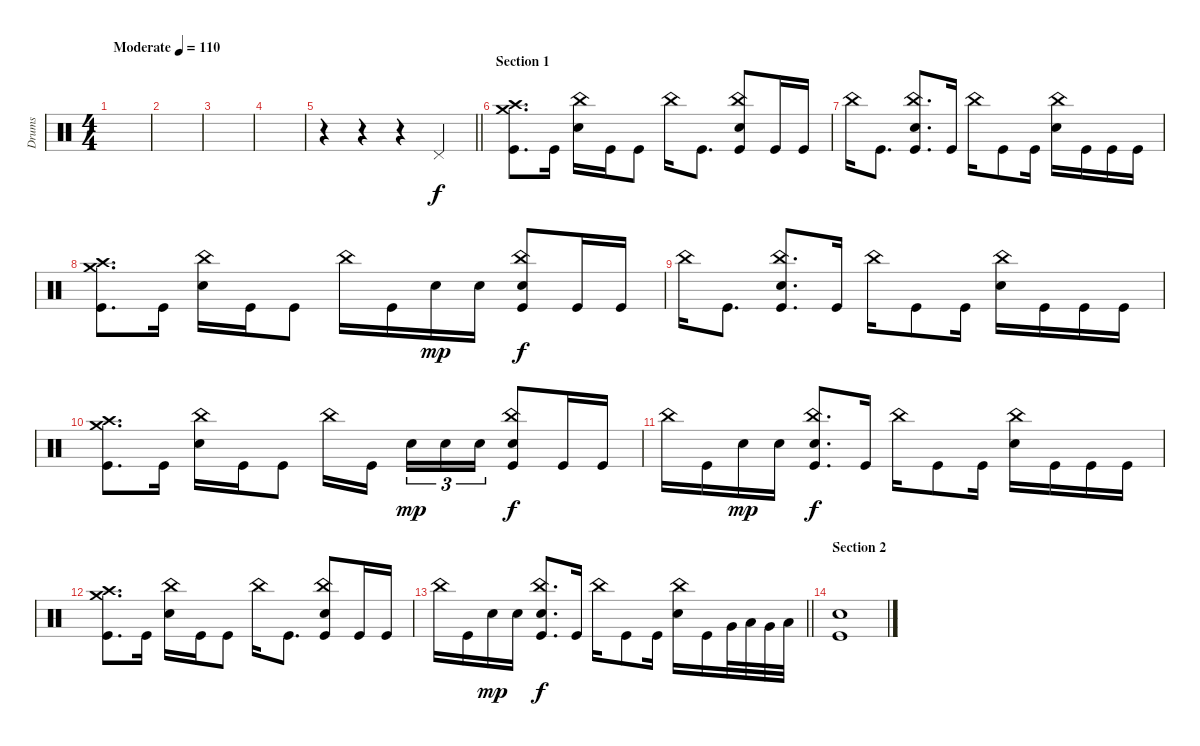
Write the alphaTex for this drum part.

\track ("Drums" "Drums") {instrument percussion}
\staff {score}
\articulation defaults
\ts (4 4)
\tempo (110 "Moderate")
\clef neutral
\ks c
|
|
|
|
\barLineRight lightlight
r.4 r.4 r.4 "Pedal Hi-Hat (hit)".4 |
\section ("" "Section 1")
("Crash high (hit)" "Crash medium (hit)" "Kick (hit)").8{d dy f} "Kick (hit)".16 ("China (hit)" "Electric Snare (hit)").16 "Kick (hit)".16 "Kick (hit)".8 "China (hit)".16 "Kick (hit)".8{d} ("China (hit)" "Electric Snare (hit)" "Kick (hit)").8 "Kick (hit)".16 "Kick (hit)".16 |
"China (hit)".16 "Kick (hit)".8{d} ("China (hit)" "Electric Snare (hit)" "Kick (hit)").8{d} "Kick (hit)".16 "China (hit)".16 "Kick (hit)".8 "Kick (hit)".16 ("China (hit)" "Electric Snare (hit)").16 "Kick (hit)".16 "Kick (hit)".16 "Kick (hit)".16 |
("Crash high (hit)" "Crash medium (hit)" "Kick (hit)").8{d} "Kick (hit)".16 ("China (hit)" "Electric Snare (hit)").16 "Kick (hit)".16 "Kick (hit)".8 "China (hit)".16 "Kick (hit)".16 "Electric Snare (hit)".16{dy mp} "Electric Snare (hit)".16 ("China (hit)" "Electric Snare (hit)" "Kick (hit)").8{dy f} "Kick (hit)".16 "Kick (hit)".16 |
"China (hit)".16 "Kick (hit)".8{d} ("China (hit)" "Electric Snare (hit)" "Kick (hit)").8{d} "Kick (hit)".16 "China (hit)".16 "Kick (hit)".8 "Kick (hit)".16 ("China (hit)" "Electric Snare (hit)").16 "Kick (hit)".16 "Kick (hit)".16 "Kick (hit)".16 |
("Crash high (hit)" "Crash medium (hit)" "Kick (hit)").8{d} "Kick (hit)".16 ("China (hit)" "Electric Snare (hit)").16 "Kick (hit)".16 "Kick (hit)".8 "China (hit)".16 "Kick (hit)".16{beam splitsecondary} "Electric Snare (hit)".16{tu (3 2) dy mp} "Electric Snare (hit)".16{tu (3 2)} "Electric Snare (hit)".16{tu (3 2)} ("China (hit)" "Electric Snare (hit)" "Kick (hit)").8{dy f} "Kick (hit)".16 "Kick (hit)".16 |
"China (hit)".16 "Kick (hit)".16 "Electric Snare (hit)".16{dy mp} "Electric Snare (hit)".16 ("China (hit)" "Electric Snare (hit)" "Kick (hit)").8{d dy f} "Kick (hit)".16 "China (hit)".16 "Kick (hit)".8 "Kick (hit)".16 ("China (hit)" "Electric Snare (hit)").16 "Kick (hit)".16 "Kick (hit)".16 "Kick (hit)".16 |
("Crash high (hit)" "Crash medium (hit)" "Kick (hit)").8{d} "Kick (hit)".16 ("China (hit)" "Electric Snare (hit)").16 "Kick (hit)".16 "Kick (hit)".8 "China (hit)".16 "Kick (hit)".8{d} ("China (hit)" "Electric Snare (hit)" "Kick (hit)").8 "Kick (hit)".16 "Kick (hit)".16 |
\barLineRight lightlight "China (hit)".16 "Kick (hit)".16 "Electric Snare (hit)".16{dy mp} "Electric Snare (hit)".16
("China (hit)" "Electric Snare (hit)" "Kick (hit)").8{d dy f} "Kick (hit)".16 "China (hit)".16 "Kick (hit)".8 "Kick (hit)".16 ("China (hit)" "Electric Snare (hit)").16 "Kick (hit)".16 "Very Low Tom (hit)".32 "Low Tom (hit)".32 "Very Low Tom (hit)".32 "Low Tom (hit)".32 |
\section ("" "Section 2")
("Electric Snare (hit)" "Kick (hit)").1
